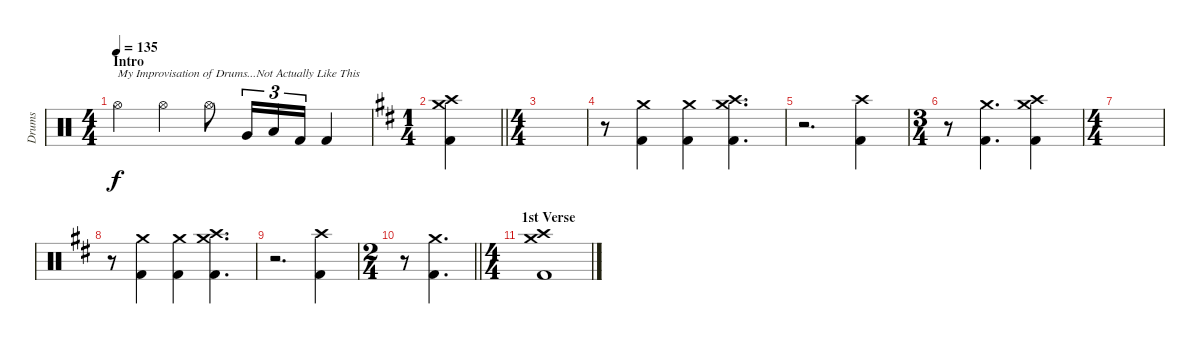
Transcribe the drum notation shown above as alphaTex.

\track ("Drums" "Drums") {instrument percussion}
\staff {score}
\articulation defaults
\ts (4 4)
\section ("" "Intro")
\tempo 135
\clef neutral
\ks c "Hi-Hat (open)".4{txt "My Improvisation of Drums...Not Actually Like This" dy f} "Hi-Hat (open)".4 "Hi-Hat (open)".8 "Very Low Tom (hit)".16{tu (3 2)} "Low Floor Tom (hit)".16{tu (3 2)} "Kick (hit) 2".16{tu (3 2)} "Kick (hit) 2".4
|
\ts (1 4)
\barLineRight lightlight
\ks d
("Crash high (hit)" "Crash medium (hit)" "Kick (hit) 2").4 |
\ts (4 4)
|
r.8 ("Crash medium (hit)" "Kick (hit) 2").4 ("Crash medium (hit)" "Kick (hit) 2").4 ("Crash high (hit)" "Crash medium (hit)" "Kick (hit) 2").4{d} |
r.2{d} ("Crash high (hit)" "Kick (hit) 2").4 |
\ts (3 4)
r.8 ("Crash medium (hit)" "Kick (hit) 2").4{d} ("Crash high (hit)" "Crash medium (hit)" "Kick (hit) 2").4 |
\ts (4 4)
|
r.8 ("Crash medium (hit)" "Kick (hit) 2").4 ("Crash medium (hit)" "Kick (hit) 2").4 ("Crash high (hit)" "Crash medium (hit)" "Kick (hit) 2").4{d} |
r.2{d} ("Crash high (hit)" "Kick (hit) 2").4 |
\ts (2 4)
\barLineRight lightlight
r.8 ("Crash medium (hit)" "Kick (hit) 2").4{d} |
\ts (4 4)
\section ("" "1st Verse")
("Crash high (hit)" "Crash medium (hit)" "Kick (hit) 2").1
